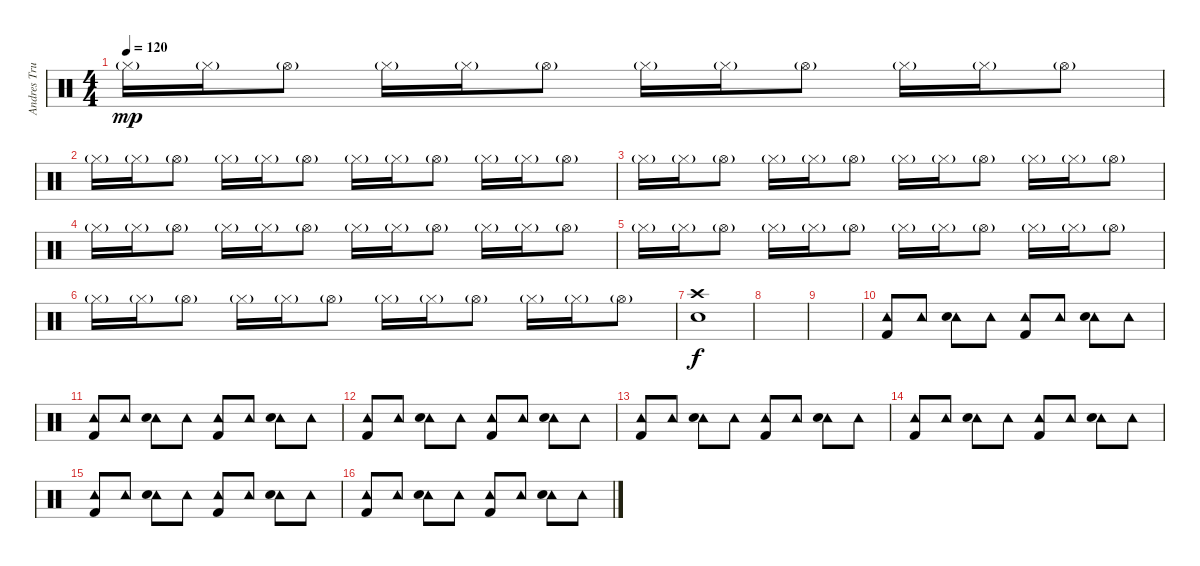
\track ("Andres Trujillo" "Andres Tru") {instrument percussion}
\staff {score}
\articulation defaults
\ts (4 4)
\tempo 120
\clef neutral
\ks c "Hi-Hat (closed)"{g}.16{dy mp} "Hi-Hat (closed)"{g}.16 "Hi-Hat (open)"{g}.8 "Hi-Hat (closed)"{g}.16 "Hi-Hat (closed)"{g}.16 "Hi-Hat (open)"{g}.8 "Hi-Hat (closed)"{g}.16 "Hi-Hat (closed)"{g}.16 "Hi-Hat (open)"{g}.8 "Hi-Hat (closed)"{g}.16 "Hi-Hat (closed)"{g}.16 "Hi-Hat (open)"{g}.8
|
"Hi-Hat (closed)"{g}.16 "Hi-Hat (closed)"{g}.16 "Hi-Hat (open)"{g}.8 "Hi-Hat (closed)"{g}.16 "Hi-Hat (closed)"{g}.16 "Hi-Hat (open)"{g}.8 "Hi-Hat (closed)"{g}.16 "Hi-Hat (closed)"{g}.16 "Hi-Hat (open)"{g}.8 "Hi-Hat (closed)"{g}.16 "Hi-Hat (closed)"{g}.16 "Hi-Hat (open)"{g}.8 |
"Hi-Hat (closed)"{g}.16 "Hi-Hat (closed)"{g}.16 "Hi-Hat (open)"{g}.8 "Hi-Hat (closed)"{g}.16 "Hi-Hat (closed)"{g}.16 "Hi-Hat (open)"{g}.8 "Hi-Hat (closed)"{g}.16 "Hi-Hat (closed)"{g}.16 "Hi-Hat (open)"{g}.8 "Hi-Hat (closed)"{g}.16 "Hi-Hat (closed)"{g}.16 "Hi-Hat (open)"{g}.8 |
"Hi-Hat (closed)"{g}.16 "Hi-Hat (closed)"{g}.16 "Hi-Hat (open)"{g}.8 "Hi-Hat (closed)"{g}.16 "Hi-Hat (closed)"{g}.16 "Hi-Hat (open)"{g}.8 "Hi-Hat (closed)"{g}.16 "Hi-Hat (closed)"{g}.16 "Hi-Hat (open)"{g}.8 "Hi-Hat (closed)"{g}.16 "Hi-Hat (closed)"{g}.16 "Hi-Hat (open)"{g}.8 |
"Hi-Hat (closed)"{g}.16 "Hi-Hat (closed)"{g}.16 "Hi-Hat (open)"{g}.8 "Hi-Hat (closed)"{g}.16 "Hi-Hat (closed)"{g}.16 "Hi-Hat (open)"{g}.8 "Hi-Hat (closed)"{g}.16 "Hi-Hat (closed)"{g}.16 "Hi-Hat (open)"{g}.8 "Hi-Hat (closed)"{g}.16 "Hi-Hat (closed)"{g}.16 "Hi-Hat (open)"{g}.8 |
"Hi-Hat (closed)"{g}.16 "Hi-Hat (closed)"{g}.16 "Hi-Hat (open)"{g}.8 "Hi-Hat (closed)"{g}.16 "Hi-Hat (closed)"{g}.16 "Hi-Hat (open)"{g}.8 "Hi-Hat (closed)"{g}.16 "Hi-Hat (closed)"{g}.16 "Hi-Hat (open)"{g}.8 "Hi-Hat (closed)"{g}.16 "Hi-Hat (closed)"{g}.16 "Hi-Hat (open)"{g}.8 |
("Crash high (hit)" "Electric Snare (hit)").1{dy f} |
|
|
("Tambourine (hit)" "Kick (hit) 2").8 "Tambourine (hit)".8 ("Tambourine (hit)" "Electric Snare (hit)").8 "Tambourine (hit)".8 ("Tambourine (hit)" "Kick (hit) 2").8 "Tambourine (hit)".8 ("Tambourine (hit)" "Electric Snare (hit)").8 "Tambourine (hit)".8 |
("Tambourine (hit)" "Kick (hit) 2").8 "Tambourine (hit)".8 ("Tambourine (hit)" "Electric Snare (hit)").8 "Tambourine (hit)".8 ("Tambourine (hit)" "Kick (hit) 2").8 "Tambourine (hit)".8 ("Tambourine (hit)" "Electric Snare (hit)").8 "Tambourine (hit)".8 |
("Tambourine (hit)" "Kick (hit) 2").8 "Tambourine (hit)".8 ("Tambourine (hit)" "Electric Snare (hit)").8 "Tambourine (hit)".8 ("Tambourine (hit)" "Kick (hit) 2").8 "Tambourine (hit)".8 ("Tambourine (hit)" "Electric Snare (hit)").8 "Tambourine (hit)".8 |
("Tambourine (hit)" "Kick (hit) 2").8 "Tambourine (hit)".8 ("Tambourine (hit)" "Electric Snare (hit)").8 "Tambourine (hit)".8 ("Tambourine (hit)" "Kick (hit) 2").8 "Tambourine (hit)".8 ("Tambourine (hit)" "Electric Snare (hit)").8 "Tambourine (hit)".8 |
("Tambourine (hit)" "Kick (hit) 2").8 "Tambourine (hit)".8 ("Tambourine (hit)" "Electric Snare (hit)").8 "Tambourine (hit)".8 ("Tambourine (hit)" "Kick (hit) 2").8 "Tambourine (hit)".8 ("Tambourine (hit)" "Electric Snare (hit)").8 "Tambourine (hit)".8 |
("Tambourine (hit)" "Kick (hit) 2").8 "Tambourine (hit)".8 ("Tambourine (hit)" "Electric Snare (hit)").8 "Tambourine (hit)".8 ("Tambourine (hit)" "Kick (hit) 2").8 "Tambourine (hit)".8 ("Tambourine (hit)" "Electric Snare (hit)").8 "Tambourine (hit)".8 |
("Tambourine (hit)" "Kick (hit) 2").8 "Tambourine (hit)".8 ("Tambourine (hit)" "Electric Snare (hit)").8 "Tambourine (hit)".8 ("Tambourine (hit)" "Kick (hit) 2").8 "Tambourine (hit)".8 ("Tambourine (hit)" "Electric Snare (hit)").8 "Tambourine (hit)".8
